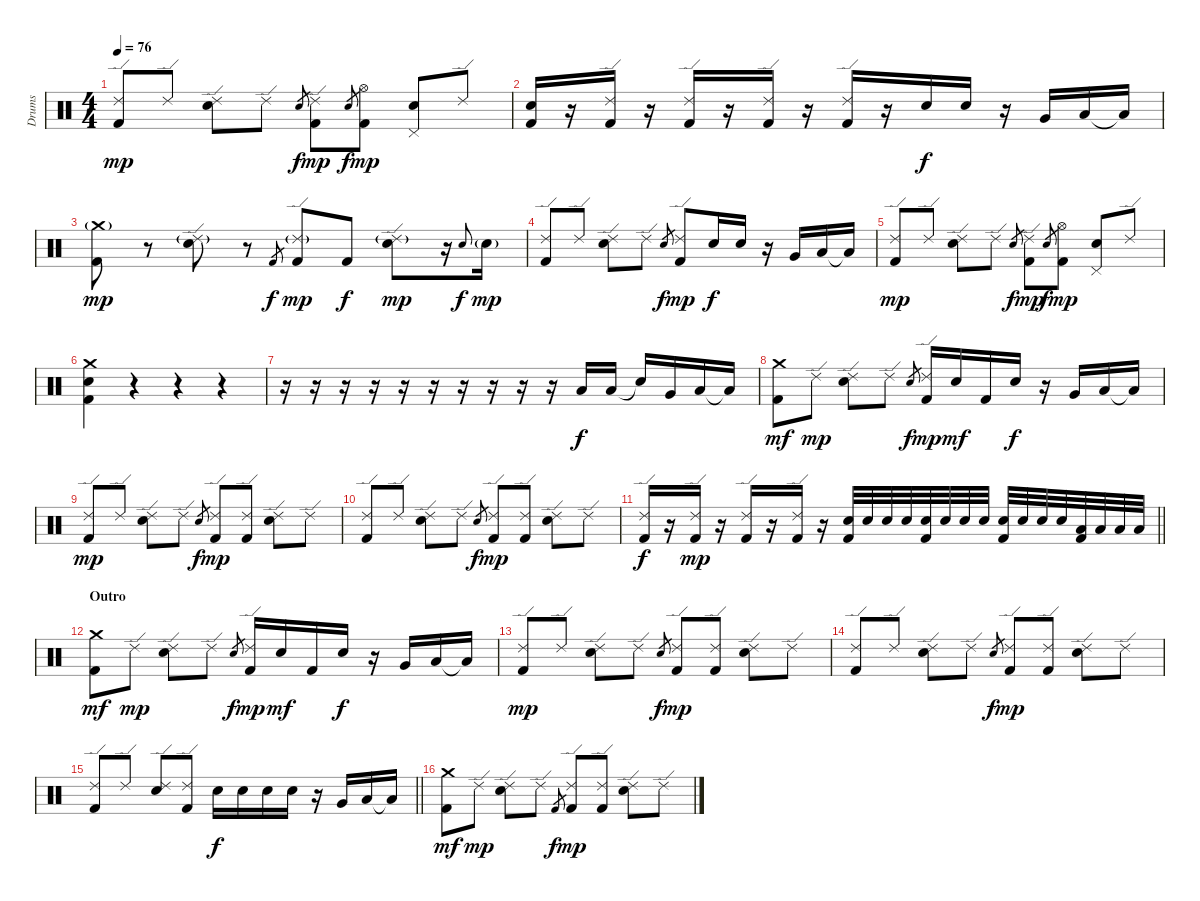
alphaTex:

\track ("Drums" "Drums") {instrument percussion}
\staff {score}
\articulation defaults
\ts (4 4)
\tempo 76
\clef neutral
\ks c
("Ride (edge) 2" "Kick (hit) 2").8{dy mp} "Ride (edge) 2".8 ("Ride (edge) 2" "Snare (hit) 2").8 "Ride (edge) 2".8 "Snare (hit) 2".8{gr dy f} ("Ride (edge) 2" "Kick (hit) 2").8{dy mp} "Snare (hit) 2".8{gr dy f} ("Hi-Hat (open)" "Kick (hit) 2").8{dy mp} ("Pedal Hi-Hat (hit)" "Snare (hit) 2").8 "Ride (edge) 2".8 |
("Snare (hit) 2" "Kick (hit) 2").16 r.16 ("Ride (edge) 2" "Kick (hit) 2").16 r.16 ("Ride (edge) 2" "Kick (hit) 2").16 r.16 ("Ride (edge) 2" "Kick (hit) 2").16 r.16 ("Ride (edge) 2" "Kick (hit) 2").16 r.16 "Snare (hit) 2".16{dy f} "Snare (hit) 2".16 r.16 "Very Low Tom (hit)".16 "Low Floor Tom (hit)".16 "Low Floor Tom (hit)"{t}.16 |
("Crash medium (hit)"{g} "Kick (hit) 2").8{dy mp} r.8 ("Ride (edge) 2"{g} "Snare (hit) 2").8 r.8 "Kick (hit) 2".8{gr dy f} ("Ride (edge) 2"{g} "Kick (hit) 2").8{dy mp} "Kick (hit) 2".8{dy f} ("Ride (edge) 2"{g} "Snare (hit) 2").8{dy mp} r.16 "Snare (hit) 2".8{gr onbeat dy f} "Snare (hit) 2"{g}.16{dy mp} |
("Ride (edge) 2" "Kick (hit) 2").8 "Ride (edge) 2".8 ("Ride (edge) 2" "Snare (hit) 2").8 "Ride (edge) 2".8 "Snare (hit) 2".8{gr dy f} ("Ride (edge) 2" "Kick (hit) 2").8{dy mp} "Snare (hit) 2".16{dy f} "Snare (hit) 2".16 r.16 "Very Low Tom (hit)".16 "Low Floor Tom (hit)".16 "Low Floor Tom (hit)"{t}.16 |
("Ride (edge) 2" "Kick (hit) 2").8{dy mp} "Ride (edge) 2".8 ("Ride (edge) 2" "Snare (hit) 2").8 "Ride (edge) 2".8 "Snare (hit) 2".8{gr dy f} ("Ride (edge) 2" "Kick (hit) 2").8{dy mp} "Snare (hit) 2".8{gr dy f} ("Hi-Hat (open)" "Kick (hit) 2").8{dy mp} ("Pedal Hi-Hat (hit)" "Snare (hit) 2").8 "Ride (edge) 2".8 |
("Crash medium (hit)" "Snare (hit) 2" "Kick (hit) 2").4 r.4 r.4 r.4 |
r.16 r.16 r.16 r.16 r.16 r.16 r.16 r.16 r.16 r.16 "Low Tom (hit)".16{dy f} "Low Tom (hit)".16 "Snare (hit)"{t}.16 "Very Low Tom (hit)".16 "Low Floor Tom (hit)".16 "Low Floor Tom (hit)"{t}.16 |
("Crash medium (hit)" "Kick (hit) 2").8{dy mf} "Ride (edge) 2".8{dy mp} ("Ride (edge) 2" "Snare (hit) 2").8 "Ride (edge) 2".8 "Snare (hit) 2".8{gr dy f} ("Ride (edge) 2" "Kick (hit) 2").16{dy mp} "Snare (hit) 2".16{dy mf} "Kick (hit) 2".16 "Snare (hit) 2".16{dy f} r.16 "Very Low Tom (hit)".16 "Low Floor Tom (hit)".16 "Low Floor Tom (hit)"{t}.16 |
("Ride (edge) 2" "Kick (hit) 2").8{dy mp} "Ride (edge) 2".8 ("Ride (edge) 2" "Snare (hit) 2").8 "Ride (edge) 2".8 "Snare (hit) 2".8{gr dy f} ("Ride (edge) 2" "Kick (hit) 2").8{dy mp} ("Ride (edge) 2" "Kick (hit) 2").8 ("Ride (edge) 2" "Snare (hit) 2").8 "Ride (edge) 2".8 |
("Ride (edge) 2" "Kick (hit) 2").8 "Ride (edge) 2".8 ("Ride (edge) 2" "Snare (hit) 2").8 "Ride (edge) 2".8 "Snare (hit) 2".8{gr dy f} ("Ride (edge) 2" "Kick (hit) 2").8{dy mp} ("Ride (edge) 2" "Kick (hit) 2").8 ("Ride (edge) 2" "Snare (hit) 2").8 "Ride (edge) 2".8 |
\barLineRight lightlight
("Ride (edge) 2" "Kick (hit) 2").16{dy f} r.16 ("Ride (edge) 2" "Kick (hit) 2").16{dy mp} r.16 ("Ride (edge) 2" "Kick (hit) 2").16 r.16 ("Ride (edge) 2" "Kick (hit) 2").16 r.16 ("Snare (hit) 2" "Kick (hit) 2").32 "Snare (hit) 2".32 "Snare (hit) 2".32 "Snare (hit) 2".32 ("Snare (hit) 2" "Kick (hit) 2").32 "Snare (hit) 2".32 "Snare (hit) 2".32 "Snare (hit) 2".32 ("Snare (hit) 2" "Kick (hit) 2").32 "Snare (hit) 2".32 "Snare (hit) 2".32 "Snare (hit) 2".32 ("Low Tom (hit)" "Kick (hit) 2").32 "Low Tom (hit)".32 "Low Floor Tom (hit)".32 "Low Floor Tom (hit)".32 |
\section ("" "Outro")
("Crash medium (hit)" "Kick (hit) 2").8{dy mf} "Ride (edge) 2".8{dy mp} ("Ride (edge) 2" "Snare (hit) 2").8 "Ride (edge) 2".8 "Snare (hit) 2".8{gr dy f} ("Ride (edge) 2" "Kick (hit) 2").16{dy mp} "Snare (hit) 2".16{dy mf} "Kick (hit) 2".16 "Snare (hit) 2".16{dy f} r.16 "Very Low Tom (hit)".16 "Low Floor Tom (hit)".16 "Low Floor Tom (hit)"{t}.16 |
("Ride (edge) 2" "Kick (hit) 2").8{dy mp} "Ride (edge) 2".8 ("Ride (edge) 2" "Snare (hit) 2").8 "Ride (edge) 2".8 "Snare (hit) 2".8{gr dy f} ("Ride (edge) 2" "Kick (hit) 2").8{dy mp} ("Ride (edge) 2" "Kick (hit) 2").8 ("Ride (edge) 2" "Snare (hit) 2").8 "Ride (edge) 2".8 |
("Ride (edge) 2" "Kick (hit) 2").8 "Ride (edge) 2".8 ("Ride (edge) 2" "Snare (hit) 2").8 "Ride (edge) 2".8 "Snare (hit) 2".8{gr dy f} ("Ride (edge) 2" "Kick (hit) 2").8{dy mp} ("Ride (edge) 2" "Kick (hit) 2").8 ("Ride (edge) 2" "Snare (hit) 2").8 "Ride (edge) 2".8 |
\barLineRight lightlight
("Ride (edge) 2" "Kick (hit) 2").8 "Ride (edge) 2".8 ("Ride (edge) 2" "Snare (hit) 2").8 ("Ride (edge) 2" "Kick (hit) 2").8 "Snare (hit) 2".16{dy f} "Snare (hit) 2".16 "Snare (hit) 2".16 "Snare (hit) 2".16 r.16 "Very Low Tom (hit)".16 "Low Floor Tom (hit)".16 "Low Floor Tom (hit)"{t}.16 |
("Crash medium (hit)" "Kick (hit) 2").8{dy mf} "Ride (edge) 2".8{dy mp} ("Ride (edge) 2" "Snare (hit) 2").8 "Ride (edge) 2".8 "Kick (hit) 2".8{gr dy f} ("Ride (edge) 2" "Kick (hit) 2").8{dy mp} ("Ride (edge) 2" "Kick (hit) 2").8 ("Ride (edge) 2" "Snare (hit) 2").8 "Ride (edge) 2".8
